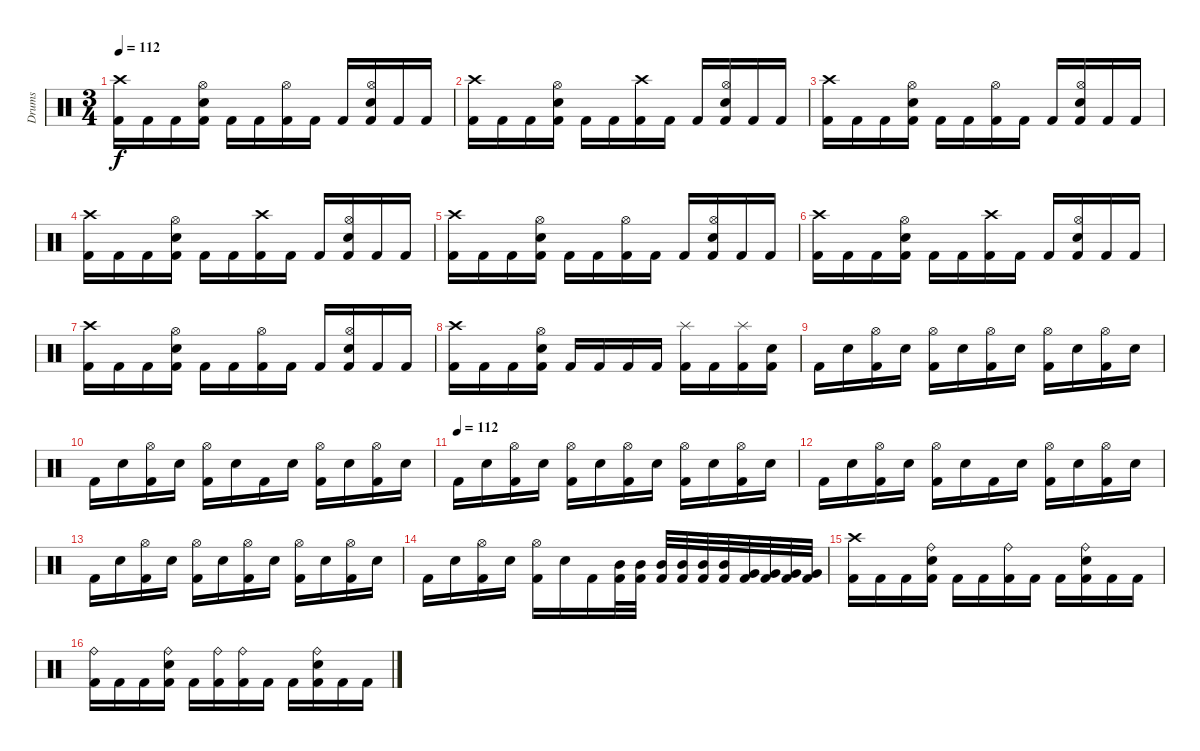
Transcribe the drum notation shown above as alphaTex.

\track ("Drums" "Drums") {instrument percussion}
\staff {score}
\articulation defaults
\ts (3 4)
\tempo 112
\clef neutral
\ks c
("Crash high (hit)" "Kick (hit) 2").16{dy f} "Kick (hit) 2".16 "Kick (hit) 2".16 ("Hi-Hat (open)" "Snare (hit) 2" "Kick (hit) 2").16 "Kick (hit) 2".16 "Kick (hit) 2".16 ("Hi-Hat (open)" "Kick (hit) 2").16 "Kick (hit) 2".16 "Kick (hit) 2".16 ("Hi-Hat (open)" "Snare (hit) 2" "Kick (hit) 2").16 "Kick (hit) 2".16 "Kick (hit) 2".16 |
("Crash high (hit)" "Kick (hit) 2").16 "Kick (hit) 2".16 "Kick (hit) 2".16 ("Hi-Hat (open)" "Snare (hit) 2" "Kick (hit) 2").16 "Kick (hit) 2".16 "Kick (hit) 2".16 ("Crash high (hit)" "Kick (hit) 2").16 "Kick (hit) 2".16 "Kick (hit) 2".16 ("Hi-Hat (open)" "Snare (hit) 2" "Kick (hit) 2").16 "Kick (hit) 2".16 "Kick (hit) 2".16 |
("Crash high (hit)" "Kick (hit) 2").16 "Kick (hit) 2".16 "Kick (hit) 2".16 ("Hi-Hat (open)" "Snare (hit) 2" "Kick (hit) 2").16 "Kick (hit) 2".16 "Kick (hit) 2".16 ("Hi-Hat (open)" "Kick (hit) 2").16 "Kick (hit) 2".16 "Kick (hit) 2".16 ("Hi-Hat (open)" "Snare (hit) 2" "Kick (hit) 2").16 "Kick (hit) 2".16 "Kick (hit) 2".16 |
("Crash high (hit)" "Kick (hit) 2").16 "Kick (hit) 2".16 "Kick (hit) 2".16 ("Hi-Hat (open)" "Snare (hit) 2" "Kick (hit) 2").16 "Kick (hit) 2".16 "Kick (hit) 2".16 ("Crash high (hit)" "Kick (hit) 2").16 "Kick (hit) 2".16 "Kick (hit) 2".16 ("Hi-Hat (open)" "Snare (hit) 2" "Kick (hit) 2").16 "Kick (hit) 2".16 "Kick (hit) 2".16 |
("Crash high (hit)" "Kick (hit) 2").16 "Kick (hit) 2".16 "Kick (hit) 2".16 ("Hi-Hat (open)" "Snare (hit) 2" "Kick (hit) 2").16 "Kick (hit) 2".16 "Kick (hit) 2".16 ("Hi-Hat (open)" "Kick (hit) 2").16 "Kick (hit) 2".16 "Kick (hit) 2".16 ("Hi-Hat (open)" "Snare (hit) 2" "Kick (hit) 2").16 "Kick (hit) 2".16 "Kick (hit) 2".16 |
("Crash high (hit)" "Kick (hit) 2").16 "Kick (hit) 2".16 "Kick (hit) 2".16 ("Hi-Hat (open)" "Snare (hit) 2" "Kick (hit) 2").16 "Kick (hit) 2".16 "Kick (hit) 2".16 ("Crash high (hit)" "Kick (hit) 2").16 "Kick (hit) 2".16 "Kick (hit) 2".16 ("Hi-Hat (open)" "Snare (hit) 2" "Kick (hit) 2").16 "Kick (hit) 2".16 "Kick (hit) 2".16 |
("Crash high (hit)" "Kick (hit) 2").16 "Kick (hit) 2".16 "Kick (hit) 2".16 ("Hi-Hat (open)" "Snare (hit) 2" "Kick (hit) 2").16 "Kick (hit) 2".16 "Kick (hit) 2".16 ("Hi-Hat (open)" "Kick (hit) 2").16 "Kick (hit) 2".16 "Kick (hit) 2".16 ("Hi-Hat (open)" "Snare (hit) 2" "Kick (hit) 2").16 "Kick (hit) 2".16 "Kick (hit) 2".16 |
("Crash high (hit)" "Kick (hit) 2").16 "Kick (hit) 2".16 "Kick (hit) 2".16 ("Hi-Hat (open)" "Snare (hit) 2" "Kick (hit) 2").16 "Kick (hit) 2".16 "Kick (hit) 2".16 "Kick (hit) 2".16 "Kick (hit) 2".16 ("Splash (hit)" "Kick (hit) 2").16 "Kick (hit) 2".16 ("Splash (hit)" "Kick (hit) 2").16 ("Snare (hit) 2" "Kick (hit) 2").16 |
"Kick (hit) 2".16 "Snare (hit) 2".16 ("Hi-Hat (open)" "Kick (hit) 2").16 "Snare (hit) 2".16 ("Hi-Hat (open)" "Kick (hit) 2").16 "Snare (hit) 2".16 ("Hi-Hat (open)" "Kick (hit) 2").16 "Snare (hit) 2".16 ("Hi-Hat (open)" "Kick (hit) 2").16 "Snare (hit) 2".16 ("Hi-Hat (open)" "Kick (hit) 2").16 "Snare (hit) 2".16 |
"Kick (hit) 2".16 "Snare (hit) 2".16 ("Hi-Hat (open)" "Kick (hit) 2").16 "Snare (hit) 2".16 ("Hi-Hat (open)" "Kick (hit) 2").16 "Snare (hit) 2".16 "Kick (hit) 2".16 "Snare (hit) 2".16 ("Hi-Hat (open)" "Kick (hit) 2").16 "Snare (hit) 2".16 ("Hi-Hat (open)" "Kick (hit) 2").16 "Snare (hit) 2".16 |
\tempo (112)
"Kick (hit) 2".16 "Snare (hit) 2".16 ("Hi-Hat (open)" "Kick (hit) 2").16 "Snare (hit) 2".16 ("Hi-Hat (open)" "Kick (hit) 2").16 "Snare (hit) 2".16 ("Hi-Hat (open)" "Kick (hit) 2").16 "Snare (hit) 2".16 ("Hi-Hat (open)" "Kick (hit) 2").16 "Snare (hit) 2".16 ("Hi-Hat (open)" "Kick (hit) 2").16 "Snare (hit) 2".16 |
"Kick (hit) 2".16 "Snare (hit) 2".16 ("Hi-Hat (open)" "Kick (hit) 2").16 "Snare (hit) 2".16 ("Hi-Hat (open)" "Kick (hit) 2").16 "Snare (hit) 2".16 "Kick (hit) 2".16 "Snare (hit) 2".16 ("Hi-Hat (open)" "Kick (hit) 2").16 "Snare (hit) 2".16 ("Hi-Hat (open)" "Kick (hit) 2").16 "Snare (hit) 2".16 |
"Kick (hit) 2".16 "Snare (hit) 2".16 ("Hi-Hat (open)" "Kick (hit) 2").16 "Snare (hit) 2".16 ("Hi-Hat (open)" "Kick (hit) 2").16 "Snare (hit) 2".16 ("Hi-Hat (open)" "Kick (hit) 2").16 "Snare (hit) 2".16 ("Hi-Hat (open)" "Kick (hit) 2").16 "Snare (hit) 2".16 ("Hi-Hat (open)" "Kick (hit) 2").16 "Snare (hit) 2".16 |
"Kick (hit) 2".16 "Snare (hit) 2".16 ("Hi-Hat (open)" "Kick (hit) 2").16 "Snare (hit) 2".16 ("Hi-Hat (open)" "Kick (hit) 2").16 "Snare (hit) 2".16 "Kick (hit) 2".16 ("Mid Tom (hit)" "Kick (hit) 2").32 ("Mid Tom (hit)" "Kick (hit) 2").32 ("Mid Tom (hit)" "Kick (hit) 2").32 ("Mid Tom (hit)" "Kick (hit) 2").32 ("Mid Tom (hit)" "Kick (hit) 2").32 ("Mid Tom (hit)" "Kick (hit) 2").32 ("Very Low Tom (hit)" "Kick (hit) 2").32 ("Very Low Tom (hit)" "Kick (hit) 2").32 ("Very Low Tom (hit)" "Kick (hit) 2").32 ("Very Low Tom (hit)" "Kick (hit) 2").32 |
("Crash high (hit)" "Kick (hit) 2").16 "Kick (hit) 2".16 "Kick (hit) 2".16 ("Ride (bell)" "Snare (hit) 2" "Kick (hit) 2").16 "Kick (hit) 2".16 "Kick (hit) 2".16 ("Ride (bell)" "Kick (hit) 2").16 "Kick (hit) 2".16 "Kick (hit) 2".16 ("Ride (bell)" "Snare (hit) 2" "Kick (hit) 2").16 "Kick (hit) 2".16 "Kick (hit) 2".16 |
("Ride (bell)" "Kick (hit) 2").16 "Kick (hit) 2".16 "Kick (hit) 2".16 ("Ride (bell)" "Snare (hit) 2" "Kick (hit) 2").16 "Kick (hit) 2".16 ("Ride (bell)" "Kick (hit) 2").16 ("Ride (bell)" "Kick (hit) 2").16 "Kick (hit) 2".16 "Kick (hit) 2".16 ("Ride (bell)" "Snare (hit) 2" "Kick (hit) 2").16 "Kick (hit) 2".16 "Kick (hit) 2".16
